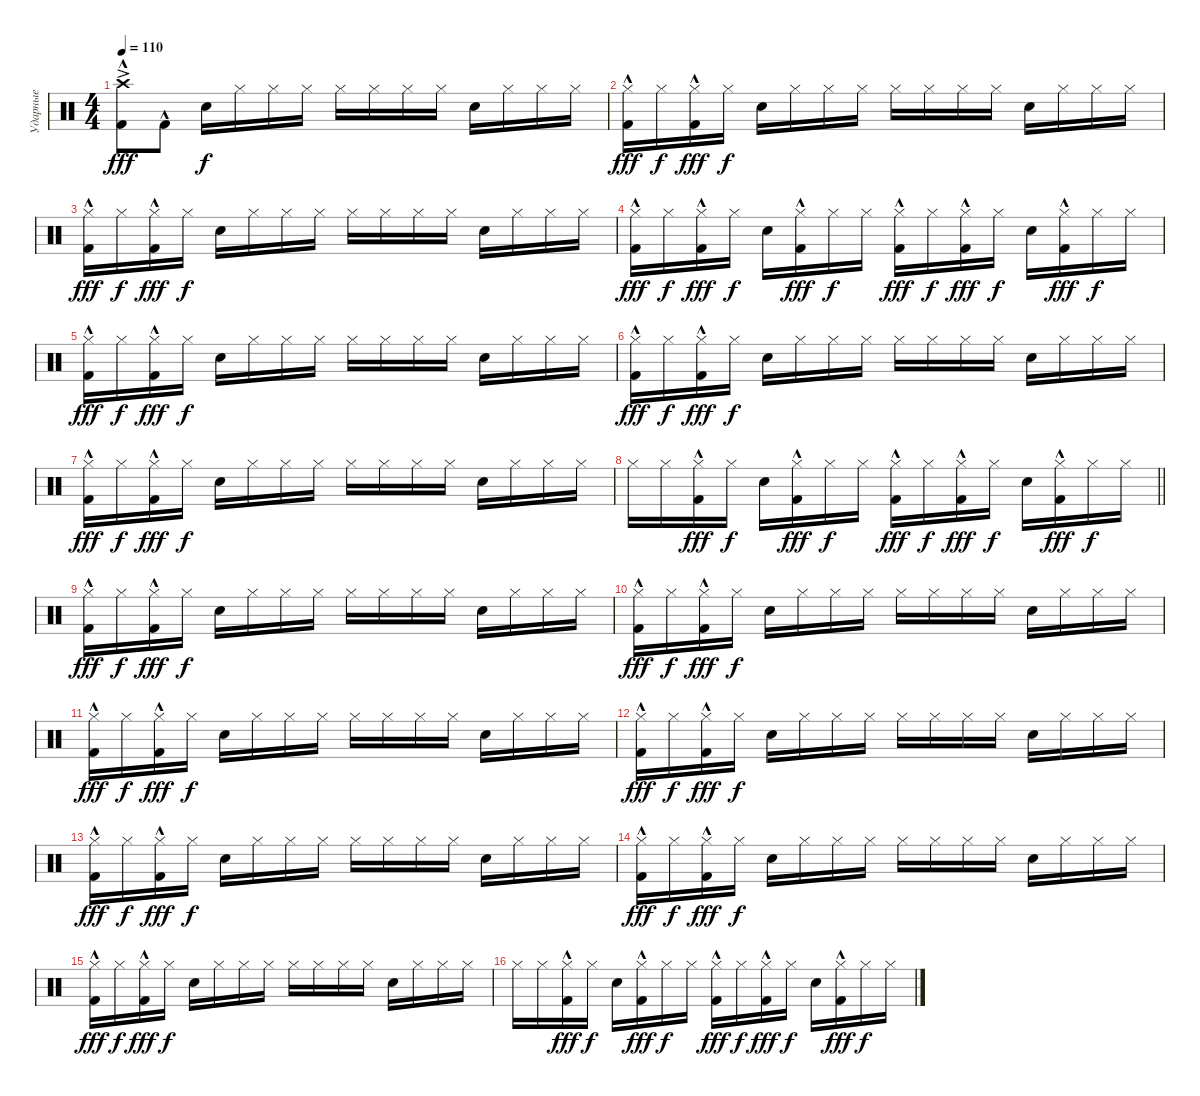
\track ("Ударные" "Ударные") {instrument percussion}
\staff {score}
\articulation defaults
\ts (4 4)
\tempo 110
\clef neutral
\ks c
("Crash high (hit)"{ac} "Kick (hit) 2"{hac}).8{dy fff} "Kick (hit) 2"{hac}.8 "Snare (hit) 2".16{dy f} "Hi-Hat (closed)".16 "Hi-Hat (closed)".16 "Hi-Hat (closed)".16 "Hi-Hat (closed)".16 "Hi-Hat (closed)".16 "Hi-Hat (closed)".16 "Hi-Hat (closed)".16 "Snare (hit) 2".16 "Hi-Hat (closed)".16 "Hi-Hat (closed)".16 "Hi-Hat (closed)".16 |
("Hi-Hat (closed)" "Kick (hit) 2"{hac}).16{dy fff} "Hi-Hat (closed)".16{dy f} ("Hi-Hat (closed)" "Kick (hit) 2"{hac}).16{dy fff} "Hi-Hat (closed)".16{dy f} "Snare (hit) 2".16 "Hi-Hat (closed)".16 "Hi-Hat (closed)".16 "Hi-Hat (closed)".16 "Hi-Hat (closed)".16 "Hi-Hat (closed)".16 "Hi-Hat (closed)".16 "Hi-Hat (closed)".16 "Snare (hit) 2".16 "Hi-Hat (closed)".16 "Hi-Hat (closed)".16 "Hi-Hat (closed)".16 |
("Hi-Hat (closed)" "Kick (hit) 2"{hac}).16{dy fff} "Hi-Hat (closed)".16{dy f} ("Hi-Hat (closed)" "Kick (hit) 2"{hac}).16{dy fff} "Hi-Hat (closed)".16{dy f} "Snare (hit) 2".16 "Hi-Hat (closed)".16 "Hi-Hat (closed)".16 "Hi-Hat (closed)".16 "Hi-Hat (closed)".16 "Hi-Hat (closed)".16 "Hi-Hat (closed)".16 "Hi-Hat (closed)".16 "Snare (hit) 2".16 "Hi-Hat (closed)".16 "Hi-Hat (closed)".16 "Hi-Hat (closed)".16 |
("Hi-Hat (closed)" "Kick (hit) 2"{hac}).16{dy fff} "Hi-Hat (closed)".16{dy f} ("Hi-Hat (closed)" "Kick (hit) 2"{hac}).16{dy fff} "Hi-Hat (closed)".16{dy f} "Snare (hit) 2".16 ("Hi-Hat (closed)" "Kick (hit) 2"{hac}).16{dy fff} "Hi-Hat (closed)".16{dy f} "Hi-Hat (closed)".16 ("Hi-Hat (closed)" "Kick (hit) 2"{hac}).16{dy fff} "Hi-Hat (closed)".16{dy f} ("Hi-Hat (closed)" "Kick (hit) 2"{hac}).16{dy fff} "Hi-Hat (closed)".16{dy f} "Snare (hit) 2".16 ("Hi-Hat (closed)" "Kick (hit) 2"{hac}).16{dy fff} "Hi-Hat (closed)".16{dy f} "Hi-Hat (closed)".16 |
("Hi-Hat (closed)" "Kick (hit) 2"{hac}).16{dy fff} "Hi-Hat (closed)".16{dy f} ("Hi-Hat (closed)" "Kick (hit) 2"{hac}).16{dy fff} "Hi-Hat (closed)".16{dy f} "Snare (hit) 2".16 "Hi-Hat (closed)".16 "Hi-Hat (closed)".16 "Hi-Hat (closed)".16 "Hi-Hat (closed)".16 "Hi-Hat (closed)".16 "Hi-Hat (closed)".16 "Hi-Hat (closed)".16 "Snare (hit) 2".16 "Hi-Hat (closed)".16 "Hi-Hat (closed)".16 "Hi-Hat (closed)".16 |
("Hi-Hat (closed)" "Kick (hit) 2"{hac}).16{dy fff} "Hi-Hat (closed)".16{dy f} ("Hi-Hat (closed)" "Kick (hit) 2"{hac}).16{dy fff} "Hi-Hat (closed)".16{dy f} "Snare (hit) 2".16 "Hi-Hat (closed)".16 "Hi-Hat (closed)".16 "Hi-Hat (closed)".16 "Hi-Hat (closed)".16 "Hi-Hat (closed)".16 "Hi-Hat (closed)".16 "Hi-Hat (closed)".16 "Snare (hit) 2".16 "Hi-Hat (closed)".16 "Hi-Hat (closed)".16 "Hi-Hat (closed)".16 |
("Hi-Hat (closed)" "Kick (hit) 2"{hac}).16{dy fff} "Hi-Hat (closed)".16{dy f} ("Hi-Hat (closed)" "Kick (hit) 2"{hac}).16{dy fff} "Hi-Hat (closed)".16{dy f} "Snare (hit) 2".16 "Hi-Hat (closed)".16 "Hi-Hat (closed)".16 "Hi-Hat (closed)".16 "Hi-Hat (closed)".16 "Hi-Hat (closed)".16 "Hi-Hat (closed)".16 "Hi-Hat (closed)".16 "Snare (hit) 2".16 "Hi-Hat (closed)".16 "Hi-Hat (closed)".16 "Hi-Hat (closed)".16 |
\barLineRight lightlight "Hi-Hat (closed)".16 "Hi-Hat (closed)".16
("Hi-Hat (closed)" "Kick (hit) 2"{hac}).16{dy fff} "Hi-Hat (closed)".16{dy f} "Snare (hit) 2".16 ("Hi-Hat (closed)" "Kick (hit) 2"{hac}).16{dy fff} "Hi-Hat (closed)".16{dy f} "Hi-Hat (closed)".16 ("Hi-Hat (closed)" "Kick (hit) 2"{hac}).16{dy fff} "Hi-Hat (closed)".16{dy f} ("Hi-Hat (closed)" "Kick (hit) 2"{hac}).16{dy fff} "Hi-Hat (closed)".16{dy f} "Snare (hit) 2".16 ("Hi-Hat (closed)" "Kick (hit) 2"{hac}).16{dy fff} "Hi-Hat (closed)".16{dy f} "Hi-Hat (closed)".16 |
\section ("" "")
("Hi-Hat (closed)" "Kick (hit) 2"{hac}).16{dy fff} "Hi-Hat (closed)".16{dy f} ("Hi-Hat (closed)" "Kick (hit) 2"{hac}).16{dy fff} "Hi-Hat (closed)".16{dy f} "Snare (hit) 2".16 "Hi-Hat (closed)".16 "Hi-Hat (closed)".16 "Hi-Hat (closed)".16 "Hi-Hat (closed)".16 "Hi-Hat (closed)".16 "Hi-Hat (closed)".16 "Hi-Hat (closed)".16 "Snare (hit) 2".16 "Hi-Hat (closed)".16 "Hi-Hat (closed)".16 "Hi-Hat (closed)".16 |
("Hi-Hat (closed)" "Kick (hit) 2"{hac}).16{dy fff} "Hi-Hat (closed)".16{dy f} ("Hi-Hat (closed)" "Kick (hit) 2"{hac}).16{dy fff} "Hi-Hat (closed)".16{dy f} "Snare (hit) 2".16 "Hi-Hat (closed)".16 "Hi-Hat (closed)".16 "Hi-Hat (closed)".16 "Hi-Hat (closed)".16 "Hi-Hat (closed)".16 "Hi-Hat (closed)".16 "Hi-Hat (closed)".16 "Snare (hit) 2".16 "Hi-Hat (closed)".16 "Hi-Hat (closed)".16 "Hi-Hat (closed)".16 |
("Hi-Hat (closed)" "Kick (hit) 2"{hac}).16{dy fff} "Hi-Hat (closed)".16{dy f} ("Hi-Hat (closed)" "Kick (hit) 2"{hac}).16{dy fff} "Hi-Hat (closed)".16{dy f} "Snare (hit) 2".16 "Hi-Hat (closed)".16 "Hi-Hat (closed)".16 "Hi-Hat (closed)".16 "Hi-Hat (closed)".16 "Hi-Hat (closed)".16 "Hi-Hat (closed)".16 "Hi-Hat (closed)".16 "Snare (hit) 2".16 "Hi-Hat (closed)".16 "Hi-Hat (closed)".16 "Hi-Hat (closed)".16 |
("Hi-Hat (closed)" "Kick (hit) 2"{hac}).16{dy fff} "Hi-Hat (closed)".16{dy f} ("Hi-Hat (closed)" "Kick (hit) 2"{hac}).16{dy fff} "Hi-Hat (closed)".16{dy f} "Snare (hit) 2".16 "Hi-Hat (closed)".16 "Hi-Hat (closed)".16 "Hi-Hat (closed)".16 "Hi-Hat (closed)".16 "Hi-Hat (closed)".16 "Hi-Hat (closed)".16 "Hi-Hat (closed)".16 "Snare (hit) 2".16 "Hi-Hat (closed)".16 "Hi-Hat (closed)".16 "Hi-Hat (closed)".16 |
("Hi-Hat (closed)" "Kick (hit) 2"{hac}).16{dy fff} "Hi-Hat (closed)".16{dy f} ("Hi-Hat (closed)" "Kick (hit) 2"{hac}).16{dy fff} "Hi-Hat (closed)".16{dy f} "Snare (hit) 2".16 "Hi-Hat (closed)".16 "Hi-Hat (closed)".16 "Hi-Hat (closed)".16 "Hi-Hat (closed)".16 "Hi-Hat (closed)".16 "Hi-Hat (closed)".16 "Hi-Hat (closed)".16 "Snare (hit) 2".16 "Hi-Hat (closed)".16 "Hi-Hat (closed)".16 "Hi-Hat (closed)".16 |
("Hi-Hat (closed)" "Kick (hit) 2"{hac}).16{dy fff} "Hi-Hat (closed)".16{dy f} ("Hi-Hat (closed)" "Kick (hit) 2"{hac}).16{dy fff} "Hi-Hat (closed)".16{dy f} "Snare (hit) 2".16 "Hi-Hat (closed)".16 "Hi-Hat (closed)".16 "Hi-Hat (closed)".16 "Hi-Hat (closed)".16 "Hi-Hat (closed)".16 "Hi-Hat (closed)".16 "Hi-Hat (closed)".16 "Snare (hit) 2".16 "Hi-Hat (closed)".16 "Hi-Hat (closed)".16 "Hi-Hat (closed)".16 |
("Hi-Hat (closed)" "Kick (hit) 2"{hac}).16{dy fff} "Hi-Hat (closed)".16{dy f} ("Hi-Hat (closed)" "Kick (hit) 2"{hac}).16{dy fff} "Hi-Hat (closed)".16{dy f} "Snare (hit) 2".16 "Hi-Hat (closed)".16 "Hi-Hat (closed)".16 "Hi-Hat (closed)".16 "Hi-Hat (closed)".16 "Hi-Hat (closed)".16 "Hi-Hat (closed)".16 "Hi-Hat (closed)".16 "Snare (hit) 2".16 "Hi-Hat (closed)".16 "Hi-Hat (closed)".16 "Hi-Hat (closed)".16 |
"Hi-Hat (closed)".16 "Hi-Hat (closed)".16 ("Hi-Hat (closed)" "Kick (hit) 2"{hac}).16{dy fff} "Hi-Hat (closed)".16{dy f} "Snare (hit) 2".16 ("Hi-Hat (closed)" "Kick (hit) 2"{hac}).16{dy fff} "Hi-Hat (closed)".16{dy f} "Hi-Hat (closed)".16 ("Hi-Hat (closed)" "Kick (hit) 2"{hac}).16{dy fff} "Hi-Hat (closed)".16{dy f} ("Hi-Hat (closed)" "Kick (hit) 2"{hac}).16{dy fff} "Hi-Hat (closed)".16{dy f} "Snare (hit) 2".16 ("Hi-Hat (closed)" "Kick (hit) 2"{hac}).16{dy fff} "Hi-Hat (closed)".16{dy f} "Hi-Hat (closed)".16
